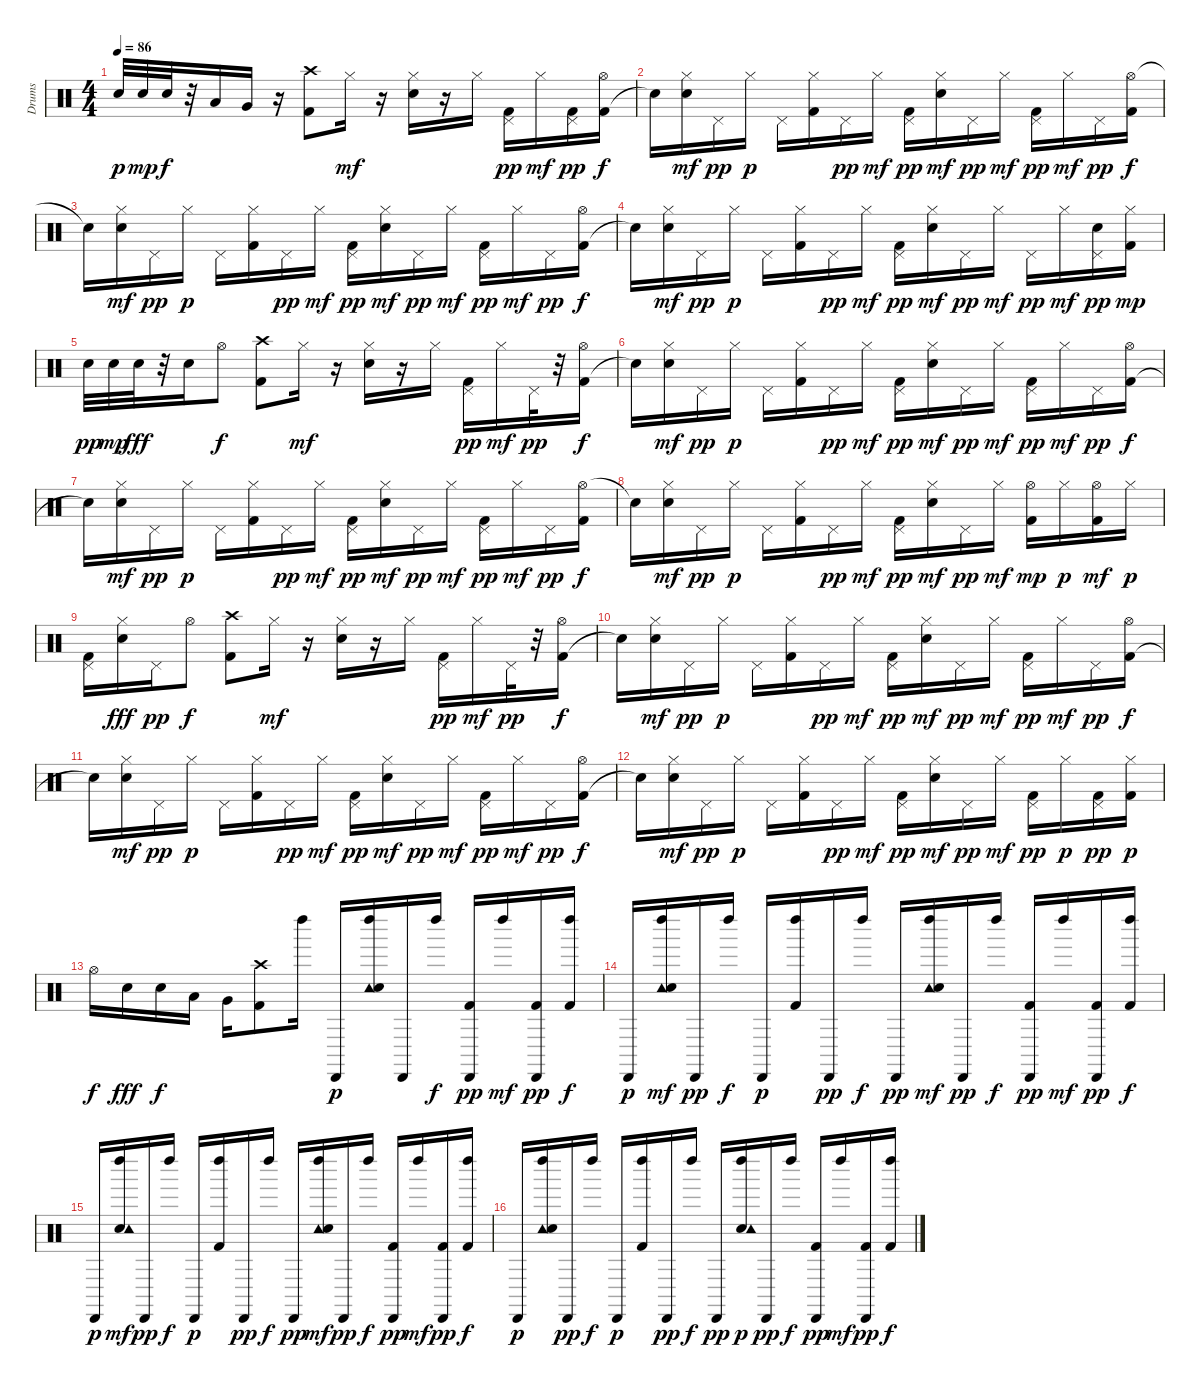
\track ("Drums" "Drums") {instrument percussion}
\staff {score}
\articulation defaults
\ts (4 4)
\tempo 86
\clef neutral
\ks c "Electric Snare (hit)".32{dy p} "Electric Snare (hit)".32{dy mp} "Electric Snare (hit)".32{dy f}
r.32 "Low Tom (hit)".16 "Very Low Tom (hit)".16 r.16 ("Kick (hit) 2" "Crash high (hit)").8 "Hi-Hat (closed)".16{dy mf} r.16 ("Electric Snare (hit)" "Hi-Hat (closed)").16 r.16 "Hi-Hat (closed)".16 ("Pedal Hi-Hat (hit)" "Kick (hit) 2").16{dy pp} "Hi-Hat (closed)".16{dy mf} ("Pedal Hi-Hat (hit)" "Kick (hit) 2").16{dy pp} ("Kick (hit) 2" "Hi-Hat (open)").16{dy f} |
"Snare (hit)"{t}.16 ("Electric Snare (hit)" "Hi-Hat (closed)").16{dy mf} "Pedal Hi-Hat (hit)".16{dy pp} "Hi-Hat (closed)".16{dy p} "Pedal Hi-Hat (hit)".16 ("Kick (hit) 2" "Hi-Hat (closed)").16 "Pedal Hi-Hat (hit)".16{dy pp} "Hi-Hat (closed)".16{dy mf} ("Kick (hit) 2" "Pedal Hi-Hat (hit)").16{dy pp} ("Hi-Hat (closed)" "Electric Snare (hit)").16{dy mf} "Pedal Hi-Hat (hit)".16{dy pp} "Hi-Hat (closed)".16{dy mf} ("Kick (hit) 2" "Pedal Hi-Hat (hit)").16{dy pp} "Hi-Hat (closed)".16{dy mf} "Pedal Hi-Hat (hit)".16{dy pp} ("Hi-Hat (open)" "Kick (hit) 2").16{dy f} |
"Snare (hit)"{t}.16 ("Electric Snare (hit)" "Hi-Hat (closed)").16{dy mf} "Pedal Hi-Hat (hit)".16{dy pp} "Hi-Hat (closed)".16{dy p} "Pedal Hi-Hat (hit)".16 ("Kick (hit) 2" "Hi-Hat (closed)").16 "Pedal Hi-Hat (hit)".16{dy pp} "Hi-Hat (closed)".16{dy mf} ("Kick (hit) 2" "Pedal Hi-Hat (hit)").16{dy pp} ("Hi-Hat (closed)" "Electric Snare (hit)").16{dy mf} "Pedal Hi-Hat (hit)".16{dy pp} "Hi-Hat (closed)".16{dy mf} ("Pedal Hi-Hat (hit)" "Kick (hit) 2").16{dy pp} "Hi-Hat (closed)".16{dy mf} "Pedal Hi-Hat (hit)".16{dy pp} ("Kick (hit) 2" "Hi-Hat (open)").16{dy f} |
"Snare (hit)"{t}.16 ("Electric Snare (hit)" "Hi-Hat (closed)").16{dy mf} "Pedal Hi-Hat (hit)".16{dy pp} "Hi-Hat (closed)".16{dy p} "Pedal Hi-Hat (hit)".16 ("Kick (hit) 2" "Hi-Hat (closed)").16 "Pedal Hi-Hat (hit)".16{dy pp} "Hi-Hat (closed)".16{dy mf} ("Pedal Hi-Hat (hit)" "Kick (hit) 2").16{dy pp} ("Hi-Hat (closed)" "Electric Snare (hit)").16{dy mf} "Pedal Hi-Hat (hit)".16{dy pp} "Hi-Hat (closed)".16{dy mf} "Pedal Hi-Hat (hit)".16{dy pp} "Hi-Hat (closed)".16{dy mf} ("Pedal Hi-Hat (hit)" "Electric Snare (hit)").16{dy pp} ("Kick (hit) 2" "Hi-Hat (closed)").16{dy mp} |
"Electric Snare (hit)".32{dy pp} "Electric Snare (hit)".32{dy mp} "Electric Snare (hit)".32{dy fff} r.32 "Electric Snare (hit)".16 "Hi-Hat (open)".8{dy f} ("Kick (hit) 2" "Crash high (hit)").8 "Hi-Hat (closed)".16{dy mf} r.16 ("Hi-Hat (closed)" "Electric Snare (hit)").16 r.16 "Hi-Hat (closed)".16 ("Kick (hit) 2" "Pedal Hi-Hat (hit)").16{dy pp} "Hi-Hat (closed)".16{dy mf} "Pedal Hi-Hat (hit)".32{dy pp} r.32 ("Kick (hit) 2" "Hi-Hat (open)").16{dy f} |
"Snare (hit)"{t}.16 ("Hi-Hat (closed)" "Electric Snare (hit)").16{dy mf} "Pedal Hi-Hat (hit)".16{dy pp} "Hi-Hat (closed)".16{dy p} "Pedal Hi-Hat (hit)".16 ("Hi-Hat (closed)" "Kick (hit) 2").16 "Pedal Hi-Hat (hit)".16{dy pp} "Hi-Hat (closed)".16{dy mf} ("Kick (hit) 2" "Pedal Hi-Hat (hit)").16{dy pp} ("Hi-Hat (closed)" "Electric Snare (hit)").16{dy mf} "Pedal Hi-Hat (hit)".16{dy pp} "Hi-Hat (closed)".16{dy mf} ("Pedal Hi-Hat (hit)" "Kick (hit) 2").16{dy pp} "Hi-Hat (closed)".16{dy mf} "Pedal Hi-Hat (hit)".16{dy pp} ("Kick (hit) 2" "Hi-Hat (open)").16{dy f} |
"Snare (hit)"{t}.16 ("Hi-Hat (closed)" "Electric Snare (hit)").16{dy mf} "Pedal Hi-Hat (hit)".16{dy pp} "Hi-Hat (closed)".16{dy p} "Pedal Hi-Hat (hit)".16 ("Hi-Hat (closed)" "Kick (hit) 2").16 "Pedal Hi-Hat (hit)".16{dy pp} "Hi-Hat (closed)".16{dy mf} ("Pedal Hi-Hat (hit)" "Kick (hit) 2").16{dy pp} ("Hi-Hat (closed)" "Electric Snare (hit)").16{dy mf} "Pedal Hi-Hat (hit)".16{dy pp} "Hi-Hat (closed)".16{dy mf} ("Pedal Hi-Hat (hit)" "Kick (hit) 2").16{dy pp} "Hi-Hat (closed)".16{dy mf} "Pedal Hi-Hat (hit)".16{dy pp} ("Hi-Hat (open)" "Kick (hit) 2").16{dy f} |
"Snare (hit)"{t}.16 ("Electric Snare (hit)" "Hi-Hat (closed)").16{dy mf} "Pedal Hi-Hat (hit)".16{dy pp} "Hi-Hat (closed)".16{dy p} "Pedal Hi-Hat (hit)".16 ("Kick (hit) 2" "Hi-Hat (closed)").16 "Pedal Hi-Hat (hit)".16{dy pp} "Hi-Hat (closed)".16{dy mf} ("Kick (hit) 2" "Pedal Hi-Hat (hit)").16{dy pp} ("Hi-Hat (closed)" "Electric Snare (hit)").16{dy mf} "Pedal Hi-Hat (hit)".16{dy pp} "Hi-Hat (closed)".16{dy mf} ("Hi-Hat (open)" "Kick (hit) 2").16{dy mp} "Hi-Hat (closed)".16{dy p} ("Kick (hit) 2" "Hi-Hat (open)").16{dy mf} "Hi-Hat (closed)".16{dy p} |
("Kick (hit) 2" "Pedal Hi-Hat (hit)").16 ("Hi-Hat (closed)" "Electric Snare (hit)").16{dy fff} "Pedal Hi-Hat (hit)".16{dy pp} "Hi-Hat (open)".8{dy f} ("Kick (hit) 2" "Crash high (hit)").8 "Hi-Hat (closed)".16{dy mf} r.16 ("Hi-Hat (closed)" "Electric Snare (hit)").16 r.16 "Hi-Hat (closed)".16 ("Kick (hit) 2" "Pedal Hi-Hat (hit)").16{dy pp} "Hi-Hat (closed)".16{dy mf} "Pedal Hi-Hat (hit)".32{dy pp} r.32 ("Kick (hit) 2" "Hi-Hat (open)").16{dy f} |
"Snare (hit)"{t}.16 ("Electric Snare (hit)" "Hi-Hat (closed)").16{dy mf} "Pedal Hi-Hat (hit)".16{dy pp} "Hi-Hat (closed)".16{dy p} "Pedal Hi-Hat (hit)".16 ("Kick (hit) 2" "Hi-Hat (closed)").16 "Pedal Hi-Hat (hit)".16{dy pp} "Hi-Hat (closed)".16{dy mf} ("Kick (hit) 2" "Pedal Hi-Hat (hit)").16{dy pp} ("Electric Snare (hit)" "Hi-Hat (closed)").16{dy mf} "Pedal Hi-Hat (hit)".16{dy pp} "Hi-Hat (closed)".16{dy mf} ("Kick (hit) 2" "Pedal Hi-Hat (hit)").16{dy pp} "Hi-Hat (closed)".16{dy mf} "Pedal Hi-Hat (hit)".16{dy pp} ("Kick (hit) 2" "Hi-Hat (open)").16{dy f} |
"Snare (hit)"{t}.16 ("Hi-Hat (closed)" "Electric Snare (hit)").16{dy mf} "Pedal Hi-Hat (hit)".16{dy pp} "Hi-Hat (closed)".16{dy p} "Pedal Hi-Hat (hit)".16 ("Hi-Hat (closed)" "Kick (hit) 2").16 "Pedal Hi-Hat (hit)".16{dy pp} "Hi-Hat (closed)".16{dy mf} ("Kick (hit) 2" "Pedal Hi-Hat (hit)").16{dy pp} ("Hi-Hat (closed)" "Electric Snare (hit)").16{dy mf} "Pedal Hi-Hat (hit)".16{dy pp} "Hi-Hat (closed)".16{dy mf} ("Pedal Hi-Hat (hit)" "Kick (hit) 2").16{dy pp} "Hi-Hat (closed)".16{dy mf} "Pedal Hi-Hat (hit)".16{dy pp} ("Kick (hit) 2" "Hi-Hat (open)").16{dy f} |
"Snare (hit)"{t}.16 ("Electric Snare (hit)" "Hi-Hat (closed)").16{dy mf} "Pedal Hi-Hat (hit)".16{dy pp} "Hi-Hat (closed)".16{dy p} "Pedal Hi-Hat (hit)".16 ("Kick (hit) 2" "Hi-Hat (closed)").16 "Pedal Hi-Hat (hit)".16{dy pp} "Hi-Hat (closed)".16{dy mf} ("Pedal Hi-Hat (hit)" "Kick (hit) 2").16{dy pp} ("Electric Snare (hit)" "Hi-Hat (closed)").16{dy mf} "Pedal Hi-Hat (hit)".16{dy pp} "Hi-Hat (closed)".16{dy mf} ("Pedal Hi-Hat (hit)" "Kick (hit) 2").16{dy pp} "Hi-Hat (closed)".16{dy p} ("Kick (hit) 2" "Pedal Hi-Hat (hit)").16{dy pp} ("Kick (hit) 2" "Hi-Hat (closed)").16{dy p} |
"Hi-Hat (open)".16{dy f} "Electric Snare (hit)".16{dy fff} "Electric Snare (hit)".16{dy f} "Low Tom (hit)".16 "Very Low Tom (hit)".16 ("Kick (hit) 2" "Crash high (hit)").8 "Left Maraca (hit)".16 "Cabasa (hit)".16{dy p} ("Left Maraca (hit)" "Tambourine (hit)" "Snare (hit) 2").16 "Cabasa (hit)".16 "Left Maraca (hit)".16{dy f} ("Cabasa (hit)" "Kick (hit) 2").16{dy pp} "Left Maraca (hit)".16{dy mf} ("Cabasa (hit)" "Kick (hit) 2").16{dy pp} ("Kick (hit) 2" "Left Maraca (hit)").16{dy f} |
"Cabasa (hit)".16{dy p} ("Tambourine (hit)" "Snare (hit) 2" "Left Maraca (hit)").16{dy mf} "Cabasa (hit)".16{dy pp} "Left Maraca (hit)".16{dy f} "Cabasa (hit)".16{dy p} ("Kick (hit) 2" "Left Maraca (hit)").16 "Cabasa (hit)".16{dy pp} "Left Maraca (hit)".16{dy f} "Cabasa (hit)".16{dy pp} ("Tambourine (hit)" "Left Maraca (hit)" "Snare (hit) 2").16{dy mf} "Cabasa (hit)".16{dy pp} "Left Maraca (hit)".16{dy f} ("Cabasa (hit)" "Kick (hit) 2").16{dy pp} "Left Maraca (hit)".16{dy mf} ("Kick (hit) 2" "Cabasa (hit)").16{dy pp} ("Kick (hit) 2" "Left Maraca (hit)").16{dy f} |
"Cabasa (hit)".16{dy p} ("Snare (hit) 2" "Tambourine (hit)" "Left Maraca (hit)").16{dy mf} "Cabasa (hit)".16{dy pp} "Left Maraca (hit)".16{dy f} "Cabasa (hit)".16{dy p} ("Left Maraca (hit)" "Kick (hit) 2").16 "Cabasa (hit)".16{dy pp} "Left Maraca (hit)".16{dy f} "Cabasa (hit)".16{dy pp} ("Tambourine (hit)" "Snare (hit) 2" "Left Maraca (hit)").16{dy mf} "Cabasa (hit)".16{dy pp} "Left Maraca (hit)".16{dy f} ("Kick (hit) 2" "Cabasa (hit)").16{dy pp} "Left Maraca (hit)".16{dy mf} ("Cabasa (hit)" "Kick (hit) 2").16{dy pp} ("Left Maraca (hit)" "Kick (hit) 2").16{dy f} |
"Cabasa (hit)".16{dy p} ("Left Maraca (hit)" "Tambourine (hit)" "Snare (hit) 2").16 "Cabasa (hit)".16{dy pp} "Left Maraca (hit)".16{dy f} "Cabasa (hit)".16{dy p} ("Left Maraca (hit)" "Kick (hit) 2").16 "Cabasa (hit)".16{dy pp} "Left Maraca (hit)".16{dy f} "Cabasa (hit)".16{dy pp} ("Left Maraca (hit)" "Snare (hit) 2" "Tambourine (hit)").16{dy p} "Cabasa (hit)".16{dy pp} "Left Maraca (hit)".16{dy f} ("Cabasa (hit)" "Kick (hit) 2").16{dy pp} "Left Maraca (hit)".16{dy mf} ("Kick (hit) 2" "Cabasa (hit)").16{dy pp} ("Kick (hit) 2" "Left Maraca (hit)").16{dy f}
